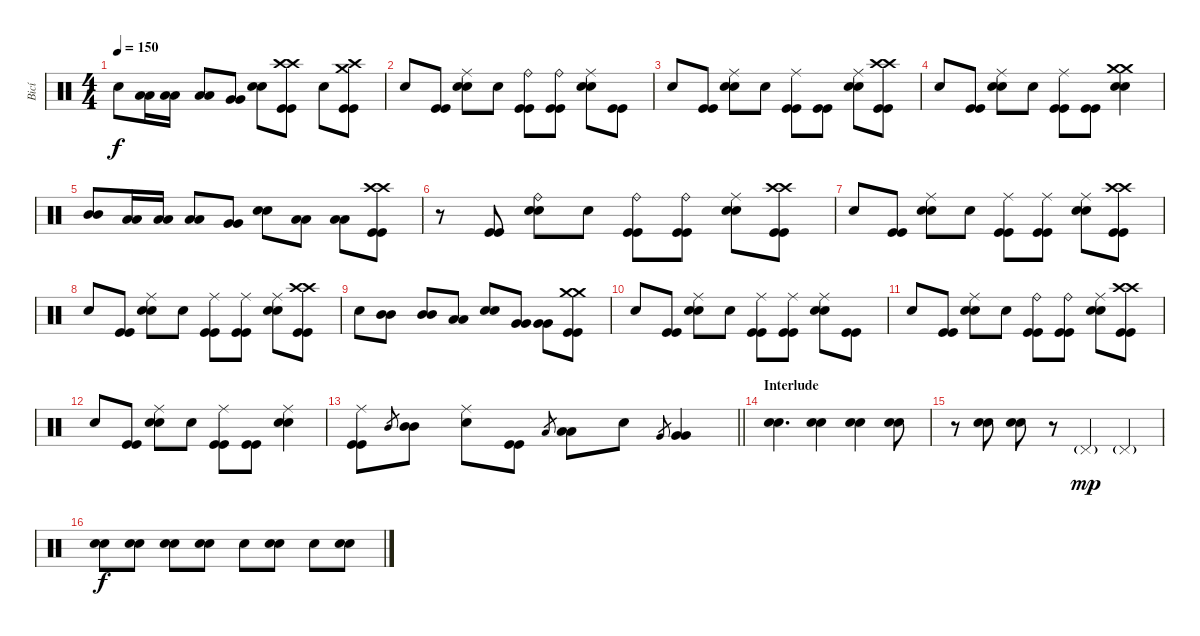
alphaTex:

\track ("Bicí" "Bicí") {instrument percussion}
\staff {score}
\articulation defaults
\ts (4 4)
\tempo 150
\clef neutral
\ks c "Snare (hit)".8{dy f}
("Low Tom (hit)" "Low Tom (hit)").16 ("Low Tom (hit)" "Low Tom (hit)").16 ("Low Tom (hit)" "Low Tom (hit)").8 ("Very Low Tom (hit)" "Very Low Tom (hit)").8 ("Electric Snare (hit)" "Electric Snare (hit)").8 ("Crash high (hit)" "Crash high (hit)" "Kick (hit)" "Kick (hit)").8 "Snare (hit)".8 ("Crash high (hit)" "Crash medium (hit)" "Kick (hit)" "Kick (hit)").8 |
"Snare (hit)".8 ("Kick (hit)" "Kick (hit)").8 ("Ride (middle)" "Electric Snare (hit)" "Electric Snare (hit)").8 "Snare (hit)".8 ("Ride (bell)" "Kick (hit)" "Kick (hit)").8 ("Ride (bell)" "Kick (hit)" "Kick (hit)").8 ("Ride (middle)" "Electric Snare (hit)" "Electric Snare (hit)").8 ("Kick (hit)" "Kick (hit)").8 |
"Snare (hit)".8 ("Kick (hit)" "Kick (hit)").8 ("Ride (middle)" "Electric Snare (hit)" "Electric Snare (hit)").8 "Snare (hit)".8 ("Ride (middle)" "Kick (hit)" "Kick (hit)").8 ("Kick (hit)" "Kick (hit)").8 ("Ride (middle)" "Electric Snare (hit)" "Electric Snare (hit)").8 ("Crash high (hit)" "Crash high (hit)" "Kick (hit)" "Kick (hit)").8 |
"Snare (hit)".8 ("Kick (hit)" "Kick (hit)").8 ("Ride (middle)" "Electric Snare (hit)" "Electric Snare (hit)").8 "Snare (hit)".8 ("Ride (middle)" "Kick (hit)" "Kick (hit)").8 ("Kick (hit)" "Kick (hit)").8 ("Crash medium (hit)" "Crash medium (hit)" "Electric Snare (hit)" "Electric Snare (hit)").4 |
("Mid Tom (hit)" "Mid Tom (hit)").8 ("Low Tom (hit)" "Low Tom (hit)").16 ("Low Tom (hit)" "Low Tom (hit)").16 ("Low Tom (hit)" "Low Tom (hit)").8 ("Very Low Tom (hit)" "Very Low Tom (hit)").8 ("Electric Snare (hit)" "Electric Snare (hit)").8 ("Low Floor Tom (hit)" "Low Floor Tom (hit)").8 ("Low Floor Tom (hit)" "Low Floor Tom (hit)").8 ("Crash high (hit)" "Crash high (hit)" "Kick (hit)" "Kick (hit)").8 |
r.8 ("Kick (hit)" "Kick (hit)").8 ("Ride (bell)" "Electric Snare (hit)" "Electric Snare (hit)").8 "Snare (hit)".8 ("Ride (bell)" "Kick (hit)" "Kick (hit)").8 ("Ride (bell)" "Kick (hit)" "Kick (hit)").8 ("Ride (middle)" "Electric Snare (hit)" "Electric Snare (hit)").8 ("Crash high (hit)" "Crash high (hit)" "Kick (hit)" "Kick (hit)").8 |
"Snare (hit)".8 ("Kick (hit)" "Kick (hit)").8 ("Ride (middle)" "Electric Snare (hit)" "Electric Snare (hit)").8 "Snare (hit)".8 ("Ride (middle)" "Kick (hit)" "Kick (hit)").8 ("Ride (middle)" "Kick (hit)" "Kick (hit)").8 ("Ride (middle)" "Electric Snare (hit)" "Electric Snare (hit)").8 ("Crash high (hit)" "Crash high (hit)" "Kick (hit)" "Kick (hit)").8 |
"Snare (hit)".8 ("Kick (hit)" "Kick (hit)").8 ("Ride (middle)" "Electric Snare (hit)" "Electric Snare (hit)").8 "Snare (hit)".8 ("Ride (middle)" "Kick (hit)" "Kick (hit)").8 ("Ride (middle)" "Kick (hit)" "Kick (hit)").8 ("Ride (middle)" "Electric Snare (hit)" "Electric Snare (hit)").8 ("Crash high (hit)" "Crash high (hit)" "Kick (hit)" "Kick (hit)").8 |
"Snare (hit)".8 ("Mid Tom (hit)" "Mid Tom (hit)").8 ("Mid Tom (hit)" "Mid Tom (hit)").8 ("Low Tom (hit)" "Low Tom (hit)").8 ("Electric Snare (hit)" "Electric Snare (hit)").8 ("Very Low Tom (hit)" "Very Low Tom (hit)").8 ("Very Low Tom (hit)" "Very Low Tom (hit)").8 ("Crash medium (hit)" "Crash medium (hit)" "Kick (hit)" "Kick (hit)").8 |
"Snare (hit)".8 ("Kick (hit)" "Kick (hit)").8 ("Ride (middle)" "Electric Snare (hit)" "Electric Snare (hit)").8 "Snare (hit)".8 ("Ride (middle)" "Kick (hit)" "Kick (hit)").8 ("Ride (middle)" "Kick (hit)" "Kick (hit)").8 ("Ride (middle)" "Electric Snare (hit)" "Electric Snare (hit)").8 ("Kick (hit)" "Kick (hit)").8 |
"Snare (hit)".8 ("Kick (hit)" "Kick (hit)").8 ("Ride (middle)" "Electric Snare (hit)" "Electric Snare (hit)").8 "Snare (hit)".8 ("Ride (bell)" "Kick (hit)" "Kick (hit)").8 ("Ride (bell)" "Kick (hit)" "Kick (hit)").8 ("Ride (middle)" "Electric Snare (hit)" "Electric Snare (hit)").8 ("Crash high (hit)" "Crash high (hit)" "Kick (hit)" "Kick (hit)").8 |
"Snare (hit)".8 ("Kick (hit)" "Kick (hit)").8 ("Ride (middle)" "Electric Snare (hit)" "Electric Snare (hit)").8 "Snare (hit)".8 ("Ride (middle)" "Kick (hit)" "Kick (hit)").8 ("Kick (hit)" "Kick (hit)").8 ("Ride (middle)" "Electric Snare (hit)" "Electric Snare (hit)").4 |
\barLineRight lightlight
("Ride (middle)" "Kick (hit)" "Kick (hit)").8 "Mid Tom (hit)".8{gr} ("Mid Tom (hit)" "Mid Tom (hit)").8 ("Ride (middle)" "Snare (hit)").8 ("Kick (hit)" "Kick (hit)").8 "Low Tom (hit)".8{gr} ("Low Tom (hit)" "Low Tom (hit)").8 "Snare (hit)".8 "Very Low Tom (hit)".8{gr} ("Very Low Tom (hit)" "Very Low Tom (hit)").4 |
\section ("" "Interlude")
("Electric Snare (hit)" "Electric Snare (hit)").4{d} ("Electric Snare (hit)" "Electric Snare (hit)").4 ("Electric Snare (hit)" "Electric Snare (hit)").4 ("Electric Snare (hit)" "Electric Snare (hit)").8 |
r.8 ("Electric Snare (hit)" "Electric Snare (hit)").8 ("Electric Snare (hit)" "Electric Snare (hit)").8 r.8 "Pedal Hi-Hat (hit)"{g}.4{dy mp} "Pedal Hi-Hat (hit)"{g}.4 |
("Electric Snare (hit)" "Electric Snare (hit)").8{dy f} ("Electric Snare (hit)" "Electric Snare (hit)").8 ("Electric Snare (hit)" "Electric Snare (hit)").8 ("Electric Snare (hit)" "Electric Snare (hit)").8 "Snare (hit)".8 ("Electric Snare (hit)" "Electric Snare (hit)").8 "Snare (hit)".8 ("Electric Snare (hit)" "Electric Snare (hit)").8
